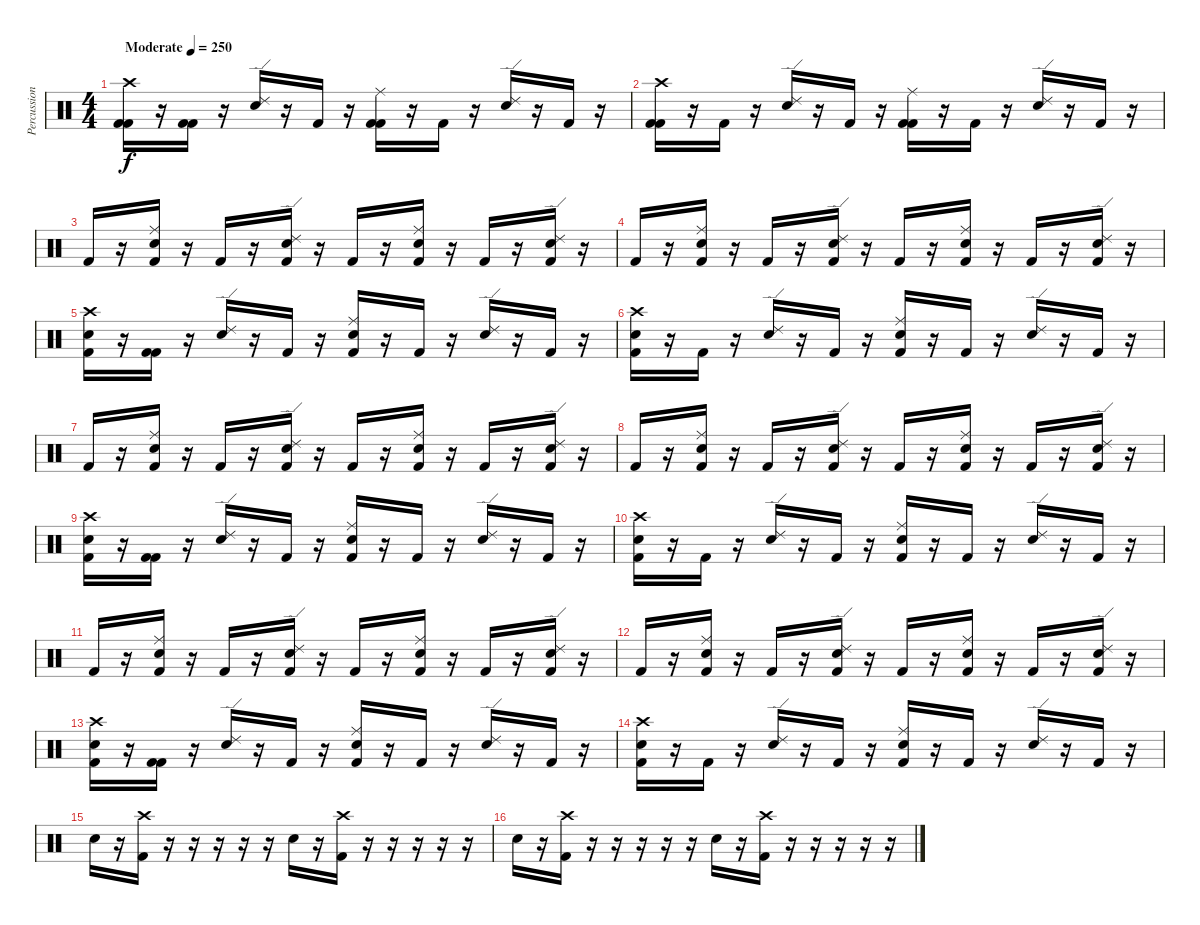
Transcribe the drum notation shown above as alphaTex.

\track ("Percussion" "Percussion") {instrument percussion}
\staff {score}
\articulation defaults
\ts (4 4)
\tempo (250 "Moderate")
\clef neutral
\ks c
("Crash high (hit)" "Kick (hit) 2" "Kick (hit) 2").16{dy f} r.16 ("Kick (hit) 2" "Kick (hit) 2").16 r.16 ("Ride (edge) 2" "Electric Snare (hit)").16 r.16 "Kick (hit) 2".16 r.16 ("Ride (middle)" "Kick (hit) 2" "Kick (hit) 2").16 r.16 "Kick (hit) 2".16 r.16 ("Ride (edge) 2" "Electric Snare (hit)").16 r.16 "Kick (hit) 2".16 r.16 |
("Crash high (hit)" "Kick (hit) 2" "Kick (hit) 2").16 r.16 "Kick (hit) 2".16 r.16 ("Ride (edge) 2" "Electric Snare (hit)").16 r.16 "Kick (hit) 2".16 r.16 ("Ride (middle)" "Kick (hit) 2" "Kick (hit) 2").16 r.16 "Kick (hit) 2".16 r.16 ("Ride (edge) 2" "Electric Snare (hit)").16 r.16 "Kick (hit) 2".16 r.16 |
"Kick (hit) 2".16 r.16 ("Ride (middle)" "Snare (hit) 2" "Kick (hit) 2").16 r.16 "Kick (hit) 2".16 r.16 ("Ride (edge) 2" "Snare (hit) 2" "Kick (hit) 2").16 r.16 "Kick (hit) 2".16 r.16 ("Ride (middle)" "Snare (hit) 2" "Kick (hit) 2").16 r.16 "Kick (hit) 2".16 r.16 ("Ride (edge) 2" "Snare (hit) 2" "Kick (hit) 2").16 r.16 |
"Kick (hit) 2".16 r.16 ("Ride (middle)" "Snare (hit) 2" "Kick (hit) 2").16 r.16 "Kick (hit) 2".16 r.16 ("Ride (edge) 2" "Snare (hit) 2" "Kick (hit) 2").16 r.16 "Kick (hit) 2".16 r.16 ("Ride (middle)" "Snare (hit) 2" "Kick (hit) 2").16 r.16 "Kick (hit) 2".16 r.16 ("Ride (edge) 2" "Snare (hit) 2" "Kick (hit) 2").16 r.16 |
("Crash high (hit)" "Kick (hit) 2" "Snare (hit) 2").16 r.16 ("Kick (hit) 2" "Kick (hit) 2").16 r.16 ("Ride (edge) 2" "Electric Snare (hit)").16 r.16 "Kick (hit) 2".16 r.16 ("Ride (middle)" "Kick (hit) 2" "Snare (hit) 2").16 r.16 "Kick (hit) 2".16 r.16 ("Ride (edge) 2" "Electric Snare (hit)").16 r.16 "Kick (hit) 2".16 r.16 |
("Crash high (hit)" "Kick (hit) 2" "Snare (hit) 2").16 r.16 "Kick (hit) 2".16 r.16 ("Ride (edge) 2" "Electric Snare (hit)").16 r.16 "Kick (hit) 2".16 r.16 ("Ride (middle)" "Kick (hit) 2" "Snare (hit) 2").16 r.16 "Kick (hit) 2".16 r.16 ("Ride (edge) 2" "Electric Snare (hit)").16 r.16 "Kick (hit) 2".16 r.16 |
"Kick (hit) 2".16 r.16 ("Ride (middle)" "Snare (hit) 2" "Kick (hit) 2").16 r.16 "Kick (hit) 2".16 r.16 ("Ride (edge) 2" "Snare (hit) 2" "Kick (hit) 2").16 r.16 "Kick (hit) 2".16 r.16 ("Ride (middle)" "Snare (hit) 2" "Kick (hit) 2").16 r.16 "Kick (hit) 2".16 r.16 ("Ride (edge) 2" "Snare (hit) 2" "Kick (hit) 2").16 r.16 |
"Kick (hit) 2".16 r.16 ("Ride (middle)" "Snare (hit) 2" "Kick (hit) 2").16 r.16 "Kick (hit) 2".16 r.16 ("Ride (edge) 2" "Snare (hit) 2" "Kick (hit) 2").16 r.16 "Kick (hit) 2".16 r.16 ("Ride (middle)" "Snare (hit) 2" "Kick (hit) 2").16 r.16 "Kick (hit) 2".16 r.16 ("Ride (edge) 2" "Snare (hit) 2" "Kick (hit) 2").16 r.16 |
("Crash high (hit)" "Kick (hit) 2" "Snare (hit) 2").16 r.16 ("Kick (hit) 2" "Kick (hit) 2").16 r.16 ("Ride (edge) 2" "Electric Snare (hit)").16 r.16 "Kick (hit) 2".16 r.16 ("Ride (middle)" "Kick (hit) 2" "Snare (hit) 2").16 r.16 "Kick (hit) 2".16 r.16 ("Ride (edge) 2" "Electric Snare (hit)").16 r.16 "Kick (hit) 2".16 r.16 |
("Crash high (hit)" "Kick (hit) 2" "Snare (hit) 2").16 r.16 "Kick (hit) 2".16 r.16 ("Ride (edge) 2" "Electric Snare (hit)").16 r.16 "Kick (hit) 2".16 r.16 ("Ride (middle)" "Kick (hit) 2" "Snare (hit) 2").16 r.16 "Kick (hit) 2".16 r.16 ("Ride (edge) 2" "Electric Snare (hit)").16 r.16 "Kick (hit) 2".16 r.16 |
"Kick (hit) 2".16 r.16 ("Ride (middle)" "Snare (hit) 2" "Kick (hit) 2").16 r.16 "Kick (hit) 2".16 r.16 ("Ride (edge) 2" "Snare (hit) 2" "Kick (hit) 2").16 r.16 "Kick (hit) 2".16 r.16 ("Ride (middle)" "Snare (hit) 2" "Kick (hit) 2").16 r.16 "Kick (hit) 2".16 r.16 ("Ride (edge) 2" "Snare (hit) 2" "Kick (hit) 2").16 r.16 |
"Kick (hit) 2".16 r.16 ("Ride (middle)" "Snare (hit) 2" "Kick (hit) 2").16 r.16 "Kick (hit) 2".16 r.16 ("Ride (edge) 2" "Snare (hit) 2" "Kick (hit) 2").16 r.16 "Kick (hit) 2".16 r.16 ("Ride (middle)" "Snare (hit) 2" "Kick (hit) 2").16 r.16 "Kick (hit) 2".16 r.16 ("Ride (edge) 2" "Snare (hit) 2" "Kick (hit) 2").16 r.16 |
("Crash high (hit)" "Kick (hit) 2" "Snare (hit) 2").16 r.16 ("Kick (hit) 2" "Kick (hit) 2").16 r.16 ("Ride (edge) 2" "Electric Snare (hit)").16 r.16 "Kick (hit) 2".16 r.16 ("Ride (middle)" "Kick (hit) 2" "Snare (hit) 2").16 r.16 "Kick (hit) 2".16 r.16 ("Ride (edge) 2" "Electric Snare (hit)").16 r.16 "Kick (hit) 2".16 r.16 |
("Crash high (hit)" "Kick (hit) 2" "Snare (hit) 2").16 r.16 "Kick (hit) 2".16 r.16 ("Ride (edge) 2" "Electric Snare (hit)").16 r.16 "Kick (hit) 2".16 r.16 ("Ride (middle)" "Kick (hit) 2" "Snare (hit) 2").16 r.16 "Kick (hit) 2".16 r.16 ("Ride (edge) 2" "Electric Snare (hit)").16 r.16 "Kick (hit) 2".16 r.16 |
"Snare (hit) 2".16 r.16 ("Crash high (hit)" "Kick (hit) 2").16 r.16 r.16 r.16 r.16 r.16 "Snare (hit) 2".16 r.16 ("Crash high (hit)" "Kick (hit) 2").16 r.16 r.16 r.16 r.16 r.16 |
"Snare (hit) 2".16 r.16 ("Crash high (hit)" "Kick (hit) 2").16 r.16 r.16 r.16 r.16 r.16 "Snare (hit) 2".16 r.16 ("Crash high (hit)" "Kick (hit) 2").16 r.16 r.16 r.16 r.16 r.16
